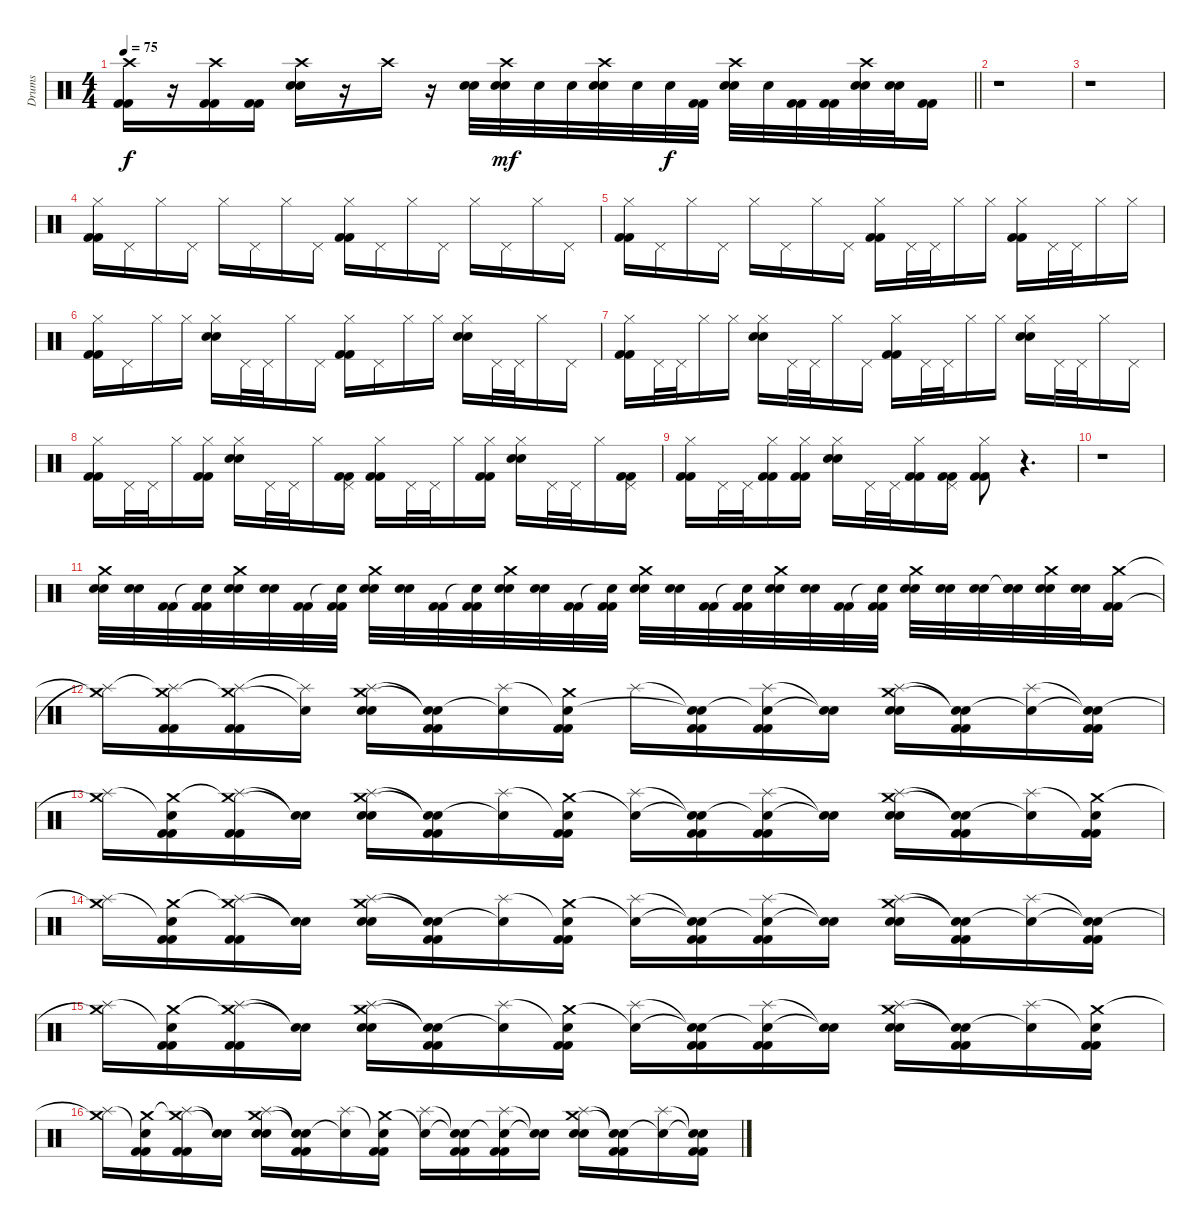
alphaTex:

\track ("Drums" "Drums") {instrument percussion}
\staff {score}
\articulation defaults
\ts (4 4)
\tempo 75
\clef neutral
\barLineRight lightlight
\ks c
("Crash high (hit)" "Kick (hit) 2" "Kick (hit) 2").16{dy f} r.16 ("Crash high (hit)" "Kick (hit) 2" "Kick (hit) 2").16 ("Kick (hit) 2" "Kick (hit) 2").16 ("Crash high (hit)" "Electric Snare (hit)" "Electric Snare (hit)").16 r.16 "Crash high (hit)".16 r.16 ("Electric Snare (hit)" "Electric Snare (hit)").32 ("Crash high (hit)" "Electric Snare (hit)" "Electric Snare (hit)").32{dy mf} "Electric Snare (hit)".32 "Electric Snare (hit)".32 ("Crash high (hit)" "Electric Snare (hit)" "Electric Snare (hit)").32 "Electric Snare (hit)".32 "Electric Snare (hit)".32{dy f} ("Kick (hit) 2" "Kick (hit) 2").32 ("Crash high (hit)" "Electric Snare (hit)" "Electric Snare (hit)").32 "Electric Snare (hit)".32 ("Kick (hit) 2" "Kick (hit) 2").32 ("Kick (hit) 2" "Kick (hit) 2").32 ("Crash high (hit)" "Electric Snare (hit)" "Electric Snare (hit)").32 ("Electric Snare (hit)" "Electric Snare (hit)").32 ("Kick (hit) 2" "Kick (hit) 2").16 |
r.1 |
r.1 |
("Hi-Hat (closed)" "Kick (hit) 2" "Kick (hit) 2").16 "Pedal Hi-Hat (hit)".16 "Hi-Hat (closed)".16 "Pedal Hi-Hat (hit)".16 "Hi-Hat (closed)".16 "Pedal Hi-Hat (hit)".16 "Hi-Hat (closed)".16 "Pedal Hi-Hat (hit)".16 ("Hi-Hat (closed)" "Kick (hit) 2" "Kick (hit) 2").16 "Pedal Hi-Hat (hit)".16 "Hi-Hat (closed)".16 "Pedal Hi-Hat (hit)".16 "Hi-Hat (closed)".16 "Pedal Hi-Hat (hit)".16 "Hi-Hat (closed)".16 "Pedal Hi-Hat (hit)".16 |
("Hi-Hat (closed)" "Kick (hit) 2" "Kick (hit) 2").16 "Pedal Hi-Hat (hit)".16 "Hi-Hat (closed)".16 "Pedal Hi-Hat (hit)".16 "Hi-Hat (closed)".16 "Pedal Hi-Hat (hit)".16 "Hi-Hat (closed)".16 "Pedal Hi-Hat (hit)".16 ("Hi-Hat (closed)" "Kick (hit) 2" "Kick (hit) 2").16 "Pedal Hi-Hat (hit)".32 "Pedal Hi-Hat (hit)".32 "Hi-Hat (closed)".16 "Hi-Hat (closed)".16 ("Hi-Hat (closed)" "Kick (hit) 2" "Kick (hit) 2").16 "Pedal Hi-Hat (hit)".32 "Pedal Hi-Hat (hit)".32 "Hi-Hat (closed)".16 "Hi-Hat (closed)".16 |
("Hi-Hat (closed)" "Kick (hit) 2" "Kick (hit) 2").16 "Pedal Hi-Hat (hit)".16 "Hi-Hat (closed)".16 "Hi-Hat (closed)".16 ("Hi-Hat (closed)" "Electric Snare (hit)" "Electric Snare (hit)").16 "Pedal Hi-Hat (hit)".32 "Pedal Hi-Hat (hit)".32 "Hi-Hat (closed)".16 "Pedal Hi-Hat (hit)".16 ("Hi-Hat (closed)" "Kick (hit) 2" "Kick (hit) 2").16 "Pedal Hi-Hat (hit)".16 "Hi-Hat (closed)".16 "Hi-Hat (closed)".16 ("Hi-Hat (closed)" "Electric Snare (hit)" "Electric Snare (hit)").16 "Pedal Hi-Hat (hit)".32 "Pedal Hi-Hat (hit)".32 "Hi-Hat (closed)".16 "Pedal Hi-Hat (hit)".16 |
("Hi-Hat (closed)" "Kick (hit) 2" "Kick (hit) 2").16 "Pedal Hi-Hat (hit)".32 "Pedal Hi-Hat (hit)".32 "Hi-Hat (closed)".16 "Hi-Hat (closed)".16 ("Hi-Hat (closed)" "Electric Snare (hit)" "Electric Snare (hit)").16 "Pedal Hi-Hat (hit)".32 "Pedal Hi-Hat (hit)".32 "Hi-Hat (closed)".16 "Pedal Hi-Hat (hit)".16 ("Hi-Hat (closed)" "Kick (hit) 2" "Kick (hit) 2").16 "Pedal Hi-Hat (hit)".32 "Pedal Hi-Hat (hit)".32 "Hi-Hat (closed)".16 "Hi-Hat (closed)".16 ("Hi-Hat (closed)" "Electric Snare (hit)" "Electric Snare (hit)").16 "Pedal Hi-Hat (hit)".32 "Pedal Hi-Hat (hit)".32 "Hi-Hat (closed)".16 "Pedal Hi-Hat (hit)".16 |
("Hi-Hat (closed)" "Kick (hit) 2" "Kick (hit) 2").16 "Pedal Hi-Hat (hit)".32 "Pedal Hi-Hat (hit)".32 "Hi-Hat (closed)".16 ("Hi-Hat (closed)" "Kick (hit) 2" "Kick (hit) 2").16 ("Hi-Hat (closed)" "Electric Snare (hit)" "Electric Snare (hit)").16 "Pedal Hi-Hat (hit)".32 "Pedal Hi-Hat (hit)".32 "Hi-Hat (closed)".16 ("Pedal Hi-Hat (hit)" "Kick (hit) 2" "Kick (hit) 2").16 ("Hi-Hat (closed)" "Kick (hit) 2" "Kick (hit) 2").16 "Pedal Hi-Hat (hit)".32 "Pedal Hi-Hat (hit)".32 "Hi-Hat (closed)".16 ("Hi-Hat (closed)" "Kick (hit) 2" "Kick (hit) 2").16 ("Hi-Hat (closed)" "Electric Snare (hit)" "Electric Snare (hit)").16 "Pedal Hi-Hat (hit)".32 "Pedal Hi-Hat (hit)".32 "Hi-Hat (closed)".16 ("Pedal Hi-Hat (hit)" "Kick (hit) 2" "Kick (hit) 2").16 |
("Hi-Hat (closed)" "Kick (hit) 2" "Kick (hit) 2").16 "Pedal Hi-Hat (hit)".32 "Pedal Hi-Hat (hit)".32 ("Hi-Hat (closed)" "Kick (hit) 2" "Kick (hit) 2").16 ("Hi-Hat (closed)" "Kick (hit) 2" "Kick (hit) 2").16 ("Hi-Hat (closed)" "Electric Snare (hit)" "Electric Snare (hit)").16 "Pedal Hi-Hat (hit)".32 "Pedal Hi-Hat (hit)".32 ("Hi-Hat (closed)" "Kick (hit) 2" "Kick (hit) 2").16 ("Pedal Hi-Hat (hit)" "Kick (hit) 2" "Kick (hit) 2").16 ("Hi-Hat (closed)" "Kick (hit) 2" "Kick (hit) 2").8 r.4{d} |
r.1 |
("Crash medium (hit)" "Electric Snare (hit)" "Electric Snare (hit)").32 ("Electric Snare (hit)" "Electric Snare (hit)").32 ("Kick (hit) 2" "Kick (hit) 2").32 ("Snare (hit)"{t} "Kick (hit) 2" "Kick (hit) 2").32 ("Crash medium (hit)" "Electric Snare (hit)" "Electric Snare (hit)").32 ("Electric Snare (hit)" "Electric Snare (hit)").32 ("Kick (hit) 2" "Kick (hit) 2").32 ("Snare (hit)"{t} "Kick (hit) 2" "Kick (hit) 2").32 ("Crash medium (hit)" "Electric Snare (hit)" "Electric Snare (hit)").32 ("Electric Snare (hit)" "Electric Snare (hit)").32 ("Kick (hit) 2" "Kick (hit) 2").32 ("Snare (hit)"{t} "Kick (hit) 2" "Kick (hit) 2").32 ("Crash medium (hit)" "Electric Snare (hit)" "Electric Snare (hit)").32 ("Electric Snare (hit)" "Electric Snare (hit)").32 ("Kick (hit) 2" "Kick (hit) 2").32 ("Snare (hit)"{t} "Kick (hit) 2" "Kick (hit) 2").32 ("Crash medium (hit)" "Electric Snare (hit)" "Electric Snare (hit)").32 ("Electric Snare (hit)" "Electric Snare (hit)").32 ("Kick (hit) 2" "Kick (hit) 2").32 ("Snare (hit)"{t} "Kick (hit) 2" "Kick (hit) 2").32 ("Crash medium (hit)" "Electric Snare (hit)" "Electric Snare (hit)").32 ("Electric Snare (hit)" "Electric Snare (hit)").32 ("Kick (hit) 2" "Kick (hit) 2").32 ("Snare (hit)"{t} "Kick (hit) 2" "Kick (hit) 2").32 ("Crash medium (hit)" "Electric Snare (hit)" "Electric Snare (hit)").32 ("Electric Snare (hit)" "Electric Snare (hit)").32 ("Electric Snare (hit)" "Electric Snare (hit)").32 ("Snare (hit)"{t} "Electric Snare (hit)" "Electric Snare (hit)").32 ("Crash medium (hit)" "Electric Snare (hit)" "Electric Snare (hit)").32 ("Electric Snare (hit)" "Electric Snare (hit)").32 ("Crash medium (hit)" "Kick (hit) 2" "Kick (hit) 2").16 |
("Crash medium (hit)"{t} "Splash (hit)"{t}).16 ("Crash medium (hit)" "Splash (hit)"{t} "Kick (hit) 2" "Kick (hit) 2").16 ("Crash medium (hit)"{t} "Splash (hit)" "Kick (hit) 2" "Kick (hit) 2").16 ("Snare (hit)"{t} "Splash (hit)"{t}).16 ("Crash medium (hit)" "Splash (hit)" "Electric Snare (hit)" "Electric Snare (hit)").16 ("Snare (hit)"{t} "Snare (hit)"{t} "Kick (hit) 2" "Kick (hit) 2").16 ("Snare (hit)"{t} "Splash (hit)").16 ("Crash medium (hit)" "Snare (hit)"{t} "Kick (hit) 2" "Kick (hit) 2").16 "Splash (hit)".16 ("Snare (hit)"{t} "Snare (hit)"{t} "Kick (hit) 2" "Kick (hit) 2").16 ("Snare (hit)"{t} "Splash (hit)" "Kick (hit) 2" "Kick (hit) 2").16 ("Snare (hit)"{t} "Snare (hit)"{t}).16 ("Crash medium (hit)" "Splash (hit)" "Electric Snare (hit)" "Electric Snare (hit)").16 ("Snare (hit)"{t} "Snare (hit)"{t} "Kick (hit) 2" "Kick (hit) 2").16 ("Snare (hit)"{t} "Splash (hit)").16 ("Snare (hit)"{t} "Snare (hit)"{t} "Kick (hit) 2" "Kick (hit) 2").16 |
("Crash medium (hit)"{t} "Splash (hit)").16 ("Crash medium (hit)" "Snare (hit)"{t} "Kick (hit) 2" "Kick (hit) 2").16 ("Crash medium (hit)"{t} "Splash (hit)" "Kick (hit) 2" "Kick (hit) 2").16 ("Snare (hit)"{t} "Snare (hit)"{t}).16 ("Crash medium (hit)" "Splash (hit)" "Electric Snare (hit)" "Electric Snare (hit)").16 ("Snare (hit)"{t} "Snare (hit)"{t} "Kick (hit) 2" "Kick (hit) 2").16 ("Snare (hit)"{t} "Splash (hit)").16 ("Crash medium (hit)" "Snare (hit)"{t} "Kick (hit) 2" "Kick (hit) 2").16 ("Snare (hit)"{t} "Splash (hit)").16 ("Snare (hit)"{t} "Snare (hit)"{t} "Kick (hit) 2" "Kick (hit) 2").16 ("Snare (hit)"{t} "Splash (hit)" "Kick (hit) 2" "Kick (hit) 2").16 ("Snare (hit)"{t} "Snare (hit)"{t}).16 ("Crash medium (hit)" "Splash (hit)" "Electric Snare (hit)" "Electric Snare (hit)").16 ("Snare (hit)"{t} "Snare (hit)"{t} "Kick (hit) 2" "Kick (hit) 2").16 ("Snare (hit)"{t} "Splash (hit)").16 ("Crash medium (hit)" "Snare (hit)"{t} "Kick (hit) 2" "Kick (hit) 2").16 |
("Crash medium (hit)"{t} "Splash (hit)").16 ("Crash medium (hit)" "Snare (hit)"{t} "Kick (hit) 2" "Kick (hit) 2").16 ("Crash medium (hit)"{t} "Splash (hit)" "Kick (hit) 2" "Kick (hit) 2").16 ("Snare (hit)"{t} "Snare (hit)"{t}).16 ("Crash medium (hit)" "Splash (hit)" "Electric Snare (hit)" "Electric Snare (hit)").16 ("Snare (hit)"{t} "Snare (hit)"{t} "Kick (hit) 2" "Kick (hit) 2").16 ("Snare (hit)"{t} "Splash (hit)").16 ("Crash medium (hit)" "Snare (hit)"{t} "Kick (hit) 2" "Kick (hit) 2").16 ("Snare (hit)"{t} "Splash (hit)").16 ("Snare (hit)"{t} "Snare (hit)"{t} "Kick (hit) 2" "Kick (hit) 2").16 ("Snare (hit)"{t} "Splash (hit)" "Kick (hit) 2" "Kick (hit) 2").16 ("Snare (hit)"{t} "Snare (hit)"{t}).16 ("Crash medium (hit)" "Splash (hit)" "Electric Snare (hit)" "Electric Snare (hit)").16 ("Snare (hit)"{t} "Snare (hit)"{t} "Kick (hit) 2" "Kick (hit) 2").16 ("Snare (hit)"{t} "Splash (hit)").16 ("Snare (hit)"{t} "Snare (hit)"{t} "Kick (hit) 2" "Kick (hit) 2").16 |
("Crash medium (hit)"{t} "Splash (hit)").16 ("Crash medium (hit)" "Snare (hit)"{t} "Kick (hit) 2" "Kick (hit) 2").16 ("Crash medium (hit)"{t} "Splash (hit)" "Kick (hit) 2" "Kick (hit) 2").16 ("Snare (hit)"{t} "Snare (hit)"{t}).16 ("Crash medium (hit)" "Splash (hit)" "Electric Snare (hit)" "Electric Snare (hit)").16 ("Snare (hit)"{t} "Snare (hit)"{t} "Kick (hit) 2" "Kick (hit) 2").16 ("Snare (hit)"{t} "Splash (hit)").16 ("Crash medium (hit)" "Snare (hit)"{t} "Kick (hit) 2" "Kick (hit) 2").16 ("Snare (hit)"{t} "Splash (hit)").16 ("Snare (hit)"{t} "Snare (hit)"{t} "Kick (hit) 2" "Kick (hit) 2").16 ("Snare (hit)"{t} "Splash (hit)" "Kick (hit) 2" "Kick (hit) 2").16 ("Snare (hit)"{t} "Snare (hit)"{t}).16 ("Crash medium (hit)" "Splash (hit)" "Electric Snare (hit)" "Electric Snare (hit)").16 ("Snare (hit)"{t} "Snare (hit)"{t} "Kick (hit) 2" "Kick (hit) 2").16 ("Snare (hit)"{t} "Splash (hit)").16 ("Crash medium (hit)" "Snare (hit)"{t} "Kick (hit) 2" "Kick (hit) 2").16 |
("Crash medium (hit)"{t} "Splash (hit)").16 ("Crash medium (hit)" "Snare (hit)"{t} "Kick (hit) 2" "Kick (hit) 2").16 ("Crash medium (hit)"{t} "Splash (hit)" "Kick (hit) 2" "Kick (hit) 2").16 ("Snare (hit)"{t} "Snare (hit)"{t}).16 ("Crash medium (hit)" "Splash (hit)" "Electric Snare (hit)" "Electric Snare (hit)").16 ("Snare (hit)"{t} "Snare (hit)"{t} "Kick (hit) 2" "Kick (hit) 2").16 ("Snare (hit)"{t} "Splash (hit)").16 ("Crash medium (hit)" "Snare (hit)"{t} "Kick (hit) 2" "Kick (hit) 2").16 ("Snare (hit)"{t} "Splash (hit)").16 ("Snare (hit)"{t} "Snare (hit)"{t} "Kick (hit) 2" "Kick (hit) 2").16 ("Snare (hit)"{t} "Splash (hit)" "Kick (hit) 2" "Kick (hit) 2").16 ("Snare (hit)"{t} "Snare (hit)"{t}).16 ("Crash medium (hit)" "Splash (hit)" "Electric Snare (hit)" "Electric Snare (hit)").16 ("Snare (hit)"{t} "Snare (hit)"{t} "Kick (hit) 2" "Kick (hit) 2").16 ("Snare (hit)"{t} "Splash (hit)").16 ("Snare (hit)"{t} "Snare (hit)"{t} "Kick (hit) 2" "Kick (hit) 2").16
